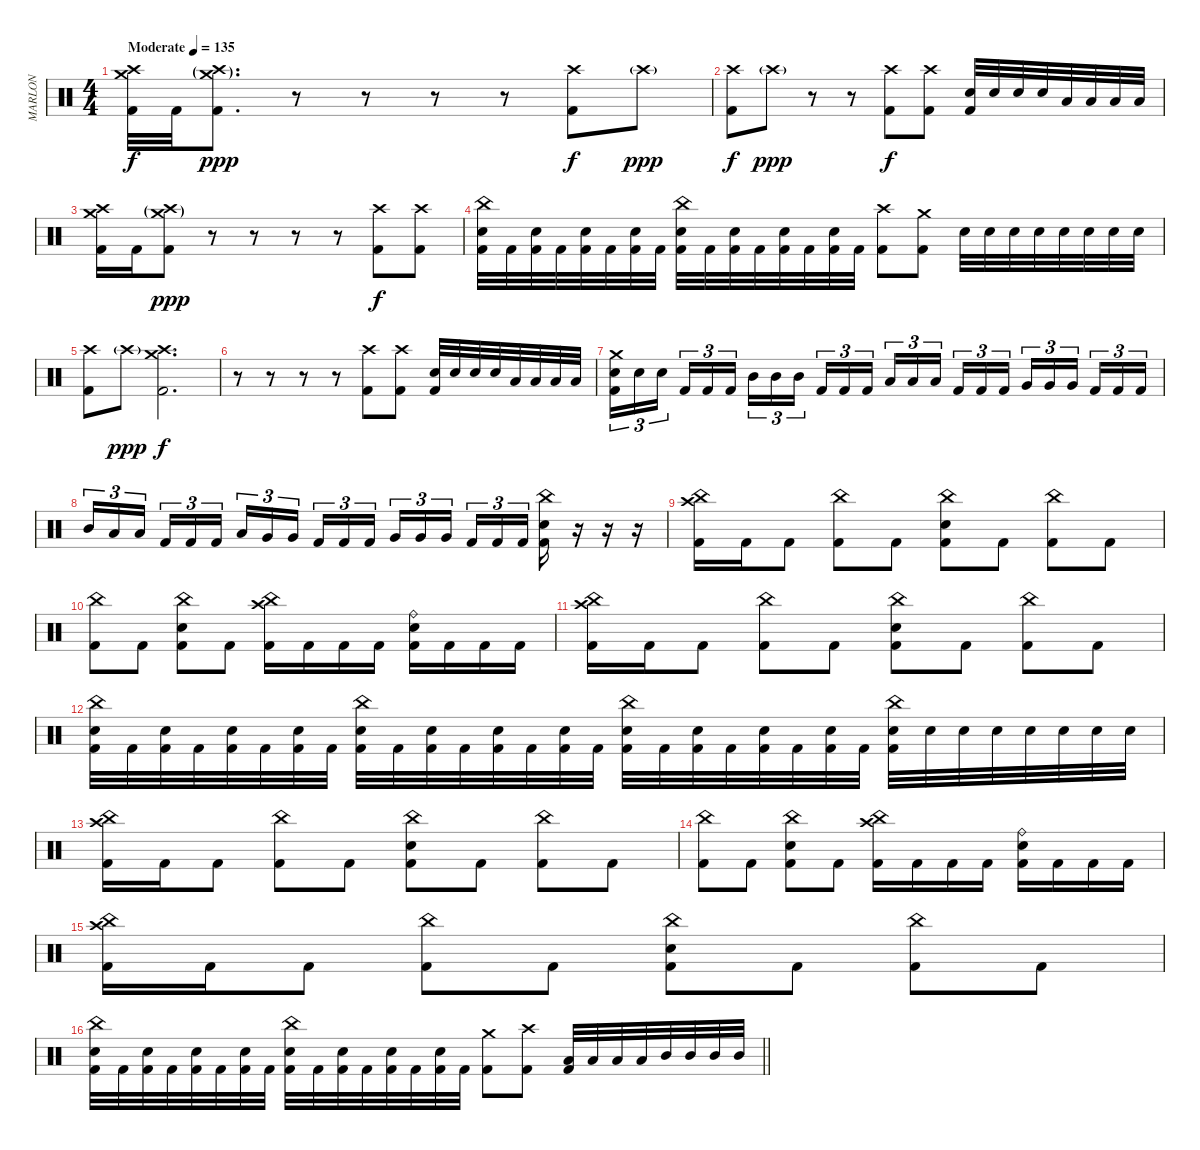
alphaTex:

\track ("MARLON" "MARLON") {instrument percussion}
\staff {score}
\articulation defaults
\ts (4 4)
\tempo (135 "Moderate")
\clef neutral
\ks c
("Crash high (hit)" "Crash medium (hit)" "Kick (hit) 2").32{dy f} "Kick (hit) 2".32 ("Crash high (hit)"{g} "Crash medium (hit)"{g} "Kick (hit) 2").8{d dy ppp} r.8 r.8 r.8 r.8 ("Crash high (hit)" "Kick (hit) 2").8{dy f} "Crash high (hit)"{g}.8{dy ppp} |
("Crash high (hit)" "Kick (hit) 2").8{dy f} "Crash high (hit)"{g}.8{dy ppp} r.8 r.8 ("Crash high (hit)" "Kick (hit) 2").8{dy f} ("Crash high (hit)" "Kick (hit) 2").8 ("Electric Snare (hit)" "Kick (hit) 2").32 "Electric Snare (hit)".32 "Electric Snare (hit)".32 "Electric Snare (hit)".32 "Low Tom (hit)".32 "Low Tom (hit)".32 "Low Tom (hit)".32 "Low Tom (hit)".32 |
("Crash high (hit)" "Crash medium (hit)" "Kick (hit) 2").16 "Kick (hit) 2".16 ("Crash high (hit)"{g} "Crash medium (hit)"{g} "Kick (hit) 2").8{dy ppp} r.8 r.8 r.8 r.8 ("Crash high (hit)" "Kick (hit) 2").8{dy f} ("Crash high (hit)" "Kick (hit) 2").8 |
("China (hit)" "Electric Snare (hit)" "Kick (hit) 2").32 "Kick (hit) 2".32 ("Electric Snare (hit)" "Kick (hit) 2").32 "Kick (hit) 2".32 ("Electric Snare (hit)" "Kick (hit) 2").32 "Kick (hit) 2".32 ("Electric Snare (hit)" "Kick (hit) 2").32 "Kick (hit) 2".32 ("China (hit)" "Electric Snare (hit)" "Kick (hit) 2").32 "Kick (hit) 2".32 ("Electric Snare (hit)" "Kick (hit) 2").32 "Kick (hit) 2".32 ("Electric Snare (hit)" "Kick (hit) 2").32 "Kick (hit) 2".32 ("Electric Snare (hit)" "Kick (hit) 2").32 "Kick (hit) 2".32 ("Crash high (hit)" "Kick (hit) 2").8 ("Crash medium (hit)" "Kick (hit) 2").8 "Electric Snare (hit)".32 "Electric Snare (hit)".32 "Electric Snare (hit)".32 "Electric Snare (hit)".32 "Electric Snare (hit)".32 "Electric Snare (hit)".32 "Electric Snare (hit)".32 "Electric Snare (hit)".32 |
("Crash high (hit)" "Kick (hit) 2").8 "Crash high (hit)"{g}.8{dy ppp} ("Crash high (hit)" "Crash medium (hit)" "Kick (hit) 2").2{d dy f} |
r.8 r.8 r.8 r.8 ("Crash high (hit)" "Kick (hit) 2").8 ("Crash high (hit)" "Kick (hit) 2").8 ("Electric Snare (hit)" "Kick (hit) 2").32 "Electric Snare (hit)".32 "Electric Snare (hit)".32 "Electric Snare (hit)".32 "Low Tom (hit)".32 "Low Tom (hit)".32 "Low Tom (hit)".32 "Low Tom (hit)".32 |
("Crash medium (hit)" "Electric Snare (hit)" "Kick (hit) 2").16{tu (3 2)} "Electric Snare (hit)".16{tu (3 2)} "Electric Snare (hit)".16{tu (3 2) beam splitsecondary} "Kick (hit) 2".16{tu (3 2)} "Kick (hit) 2".16{tu (3 2)} "Kick (hit) 2".16{tu (3 2)} "Mid Tom (hit)".16{tu (3 2)} "Mid Tom (hit)".16{tu (3 2)} "Mid Tom (hit)".16{tu (3 2) beam splitsecondary} "Kick (hit) 2".16{tu (3 2)} "Kick (hit) 2".16{tu (3 2)} "Kick (hit) 2".16{tu (3 2)} "Low Tom (hit)".16{tu (3 2)} "Low Tom (hit)".16{tu (3 2)} "Low Tom (hit)".16{tu (3 2) beam splitsecondary} "Kick (hit) 2".16{tu (3 2)} "Kick (hit) 2".16{tu (3 2)} "Kick (hit) 2".16{tu (3 2)} "Very Low Tom (hit)".16{tu (3 2)} "Very Low Tom (hit)".16{tu (3 2)} "Very Low Tom (hit)".16{tu (3 2) beam splitsecondary} "Kick (hit) 2".16{tu (3 2)} "Kick (hit) 2".16{tu (3 2)} "Kick (hit) 2".16{tu (3 2)} |
"Mid Tom (hit)".16{tu (3 2)} "Low Tom (hit)".16{tu (3 2)} "Low Tom (hit)".16{tu (3 2) beam splitsecondary} "Kick (hit) 2".16{tu (3 2)} "Kick (hit) 2".16{tu (3 2)} "Kick (hit) 2".16{tu (3 2)} "Low Tom (hit)".16{tu (3 2)} "Very Low Tom (hit)".16{tu (3 2)} "Very Low Tom (hit)".16{tu (3 2) beam splitsecondary} "Kick (hit) 2".16{tu (3 2)} "Kick (hit) 2".16{tu (3 2)} "Kick (hit) 2".16{tu (3 2)} "Very Low Tom (hit)".16{tu (3 2)} "Very Low Tom (hit)".16{tu (3 2)} "Very Low Tom (hit)".16{tu (3 2) beam splitsecondary} "Kick (hit) 2".16{tu (3 2)} "Kick (hit) 2".16{tu (3 2)} "Kick (hit) 2".16{tu (3 2)} ("China (hit)" "Electric Snare (hit)" "Kick (hit) 2").16 r.16 r.16 r.16 |
("Crash high (hit)" "China (hit)" "Kick (hit) 2").16 "Kick (hit) 2".16 "Kick (hit) 2".8 ("China (hit)" "Kick (hit) 2").8 "Kick (hit) 2".8 ("China (hit)" "Electric Snare (hit)" "Kick (hit) 2").8 "Kick (hit) 2".8 ("China (hit)" "Kick (hit) 2").8 "Kick (hit) 2".8 |
("China (hit)" "Kick (hit) 2").8 "Kick (hit) 2".8 ("China (hit)" "Electric Snare (hit)" "Kick (hit) 2").8 "Kick (hit) 2".8 ("China (hit)" "Crash high (hit)" "Kick (hit) 2").16 "Kick (hit) 2".16 "Kick (hit) 2".16 "Kick (hit) 2".16 ("Ride (bell)" "Electric Snare (hit)" "Kick (hit) 2").16 "Kick (hit) 2".16 "Kick (hit) 2".16 "Kick (hit) 2".16 |
("Crash high (hit)" "China (hit)" "Kick (hit) 2").16 "Kick (hit) 2".16 "Kick (hit) 2".8 ("China (hit)" "Kick (hit) 2").8 "Kick (hit) 2".8 ("China (hit)" "Electric Snare (hit)" "Kick (hit) 2").8 "Kick (hit) 2".8 ("China (hit)" "Kick (hit) 2").8 "Kick (hit) 2".8 |
("China (hit)" "Electric Snare (hit)" "Kick (hit) 2").32 "Kick (hit) 2".32 ("Electric Snare (hit)" "Kick (hit) 2").32 "Kick (hit) 2".32 ("Electric Snare (hit)" "Kick (hit) 2").32 "Kick (hit) 2".32 ("Electric Snare (hit)" "Kick (hit) 2").32 "Kick (hit) 2".32 ("China (hit)" "Electric Snare (hit)" "Kick (hit) 2").32 "Kick (hit) 2".32 ("Electric Snare (hit)" "Kick (hit) 2").32 "Kick (hit) 2".32 ("Electric Snare (hit)" "Kick (hit) 2").32 "Kick (hit) 2".32 ("Electric Snare (hit)" "Kick (hit) 2").32 "Kick (hit) 2".32 ("China (hit)" "Electric Snare (hit)" "Kick (hit) 2").32 "Kick (hit) 2".32 ("Electric Snare (hit)" "Kick (hit) 2").32 "Kick (hit) 2".32 ("Electric Snare (hit)" "Kick (hit) 2").32 "Kick (hit) 2".32 ("Electric Snare (hit)" "Kick (hit) 2").32 "Kick (hit) 2".32 ("China (hit)" "Electric Snare (hit)" "Kick (hit) 2").32 "Electric Snare (hit)".32 "Electric Snare (hit)".32 "Electric Snare (hit)".32 "Electric Snare (hit)".32 "Electric Snare (hit)".32 "Electric Snare (hit)".32 "Electric Snare (hit)".32 |
("Crash high (hit)" "China (hit)" "Kick (hit) 2").16 "Kick (hit) 2".16 "Kick (hit) 2".8 ("China (hit)" "Kick (hit) 2").8 "Kick (hit) 2".8 ("China (hit)" "Electric Snare (hit)" "Kick (hit) 2").8 "Kick (hit) 2".8 ("China (hit)" "Kick (hit) 2").8 "Kick (hit) 2".8 |
("China (hit)" "Kick (hit) 2").8 "Kick (hit) 2".8 ("China (hit)" "Electric Snare (hit)" "Kick (hit) 2").8 "Kick (hit) 2".8 ("China (hit)" "Crash high (hit)" "Kick (hit) 2").16 "Kick (hit) 2".16 "Kick (hit) 2".16 "Kick (hit) 2".16 ("Ride (bell)" "Electric Snare (hit)" "Kick (hit) 2").16 "Kick (hit) 2".16 "Kick (hit) 2".16 "Kick (hit) 2".16 |
("Crash high (hit)" "China (hit)" "Kick (hit) 2").16 "Kick (hit) 2".16 "Kick (hit) 2".8 ("China (hit)" "Kick (hit) 2").8 "Kick (hit) 2".8 ("China (hit)" "Electric Snare (hit)" "Kick (hit) 2").8 "Kick (hit) 2".8 ("China (hit)" "Kick (hit) 2").8 "Kick (hit) 2".8 |
\barLineRight lightlight
("China (hit)" "Electric Snare (hit)" "Kick (hit) 2").32 "Kick (hit) 2".32 ("Electric Snare (hit)" "Kick (hit) 2").32 "Kick (hit) 2".32 ("Electric Snare (hit)" "Kick (hit) 2").32 "Kick (hit) 2".32 ("Electric Snare (hit)" "Kick (hit) 2").32 "Kick (hit) 2".32 ("China (hit)" "Electric Snare (hit)" "Kick (hit) 2").32 "Kick (hit) 2".32 ("Electric Snare (hit)" "Kick (hit) 2").32 "Kick (hit) 2".32 ("Electric Snare (hit)" "Kick (hit) 2").32 "Kick (hit) 2".32 ("Electric Snare (hit)" "Kick (hit) 2").32 "Kick (hit) 2".32 ("Crash medium (hit)" "Kick (hit) 2").8 ("Crash high (hit)" "Kick (hit) 2").8 ("Low Tom (hit)" "Kick (hit) 2").32 "Low Tom (hit)".32 "Low Tom (hit)".32 "Low Tom (hit)".32 "Mid Tom (hit)".32 "Mid Tom (hit)".32 "Mid Tom (hit)".32 "Mid Tom (hit)".32
